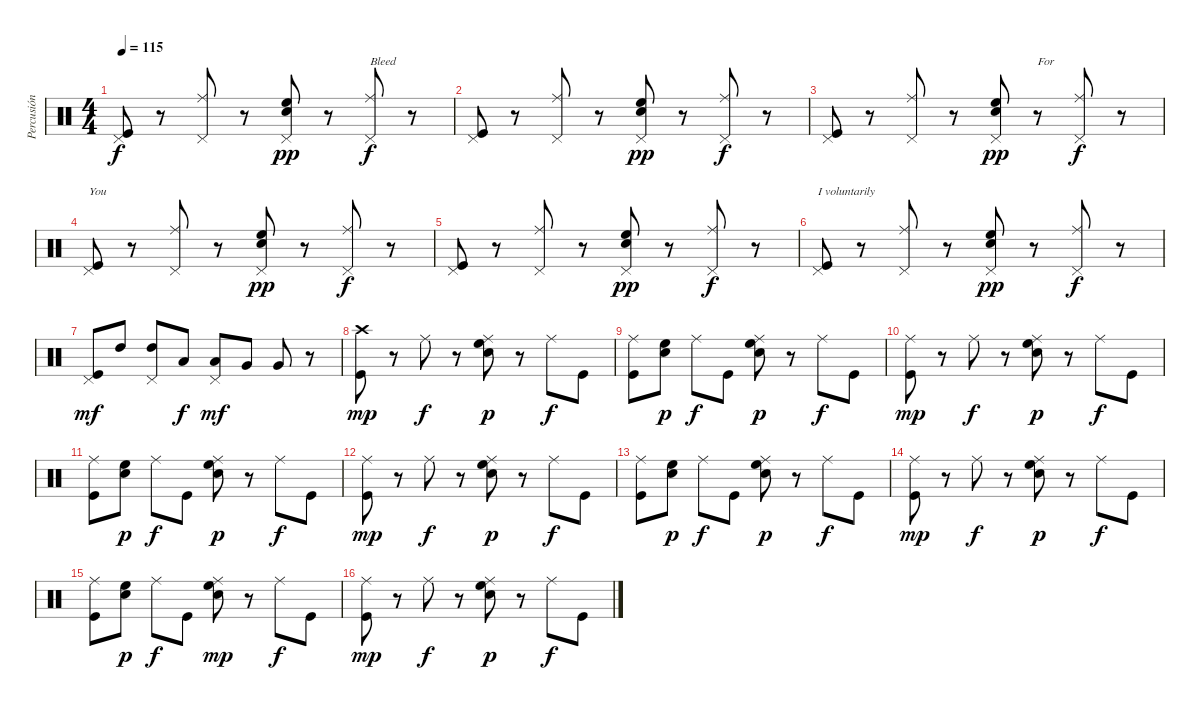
\track ("Percusión" "Percusión") {instrument percussion}
\staff {score}
\articulation defaults
\ts (4 4)
\tempo 115
\clef neutral
\ks c
("Pedal Hi-Hat (hit)" "Kick (hit)").8{dy f} r.8 ("Pedal Hi-Hat (hit)" "Ride (middle)").8 r.8 ("Pedal Hi-Hat (hit)" "High Floor Tom (hit)" "Electric Snare (hit)").8{dy pp} r.8 ("Pedal Hi-Hat (hit)" "Ride (middle)").8{txt "Bleed" dy f} r.8 |
("Pedal Hi-Hat (hit)" "Kick (hit)").8 r.8 ("Pedal Hi-Hat (hit)" "Ride (middle)").8 r.8 ("Pedal Hi-Hat (hit)" "High Floor Tom (hit)" "Electric Snare (hit)").8{dy pp} r.8 ("Pedal Hi-Hat (hit)" "Ride (middle)").8{dy f} r.8 |
("Pedal Hi-Hat (hit)" "Kick (hit)").8 r.8 ("Pedal Hi-Hat (hit)" "Ride (middle)").8 r.8 ("Pedal Hi-Hat (hit)" "High Floor Tom (hit)" "Electric Snare (hit)").8{dy pp} r.8{txt "For"} ("Pedal Hi-Hat (hit)" "Ride (middle)").8{dy f} r.8 |
("Pedal Hi-Hat (hit)" "Kick (hit)").8{txt "You"} r.8 ("Pedal Hi-Hat (hit)" "Ride (middle)").8 r.8 ("Pedal Hi-Hat (hit)" "High Floor Tom (hit)" "Electric Snare (hit)").8{dy pp} r.8 ("Pedal Hi-Hat (hit)" "Ride (middle)").8{dy f} r.8 |
("Pedal Hi-Hat (hit)" "Kick (hit)").8 r.8 ("Pedal Hi-Hat (hit)" "Ride (middle)").8 r.8 ("Pedal Hi-Hat (hit)" "High Floor Tom (hit)" "Electric Snare (hit)").8{dy pp} r.8 ("Pedal Hi-Hat (hit)" "Ride (middle)").8{dy f} r.8 |
("Pedal Hi-Hat (hit)" "Kick (hit)").8{txt "I voluntarily"} r.8 ("Pedal Hi-Hat (hit)" "Ride (middle)").8 r.8 ("Pedal Hi-Hat (hit)" "High Floor Tom (hit)" "Electric Snare (hit)").8{dy pp} r.8 ("Pedal Hi-Hat (hit)" "Ride (middle)").8{dy f} r.8 |
("Pedal Hi-Hat (hit)" "Kick (hit)").8{dy mf} "High Tom (hit)".8 ("Pedal Hi-Hat (hit)" "High Tom (hit)").8 "Low Tom (hit)".8{dy f} ("Pedal Hi-Hat (hit)" "Low Tom (hit)").8{dy mf} "Very Low Tom (hit)".8 "Very Low Tom (hit)".8 r.8 |
("Crash high (hit)" "Kick (hit)").8{dy mp} r.8 "Ride (middle)".8{dy f} r.8 ("Ride (middle)" "Electric Snare (hit)" "High Floor Tom (hit)").8{dy p} r.8 "Ride (middle)".8{dy f} "Kick (hit)".8 |
("Ride (middle)" "Kick (hit)").8 ("High Floor Tom (hit)" "Electric Snare (hit)").8{dy p} "Ride (middle)".8{dy f} "Kick (hit)".8 ("Ride (middle)" "High Floor Tom (hit)" "Electric Snare (hit)").8{dy p} r.8 "Ride (middle)".8{dy f} "Kick (hit)".8 |
("Ride (middle)" "Kick (hit)").8{dy mp} r.8 "Ride (middle)".8{dy f} r.8 ("Ride (middle)" "Electric Snare (hit)" "High Floor Tom (hit)").8{dy p} r.8 "Ride (middle)".8{dy f} "Kick (hit)".8 |
("Ride (middle)" "Kick (hit)").8 ("High Floor Tom (hit)" "Electric Snare (hit)").8{dy p} "Ride (middle)".8{dy f} "Kick (hit)".8 ("Ride (middle)" "High Floor Tom (hit)" "Electric Snare (hit)").8{dy p} r.8 "Ride (middle)".8{dy f} "Kick (hit)".8 |
("Ride (middle)" "Kick (hit)").8{dy mp} r.8 "Ride (middle)".8{dy f} r.8 ("Ride (middle)" "Electric Snare (hit)" "High Floor Tom (hit)").8{dy p} r.8 "Ride (middle)".8{dy f} "Kick (hit)".8 |
("Ride (middle)" "Kick (hit)").8 ("High Floor Tom (hit)" "Electric Snare (hit)").8{dy p} "Ride (middle)".8{dy f} "Kick (hit)".8 ("Ride (middle)" "High Floor Tom (hit)" "Electric Snare (hit)").8{dy p} r.8 "Ride (middle)".8{dy f} "Kick (hit)".8 |
("Ride (middle)" "Kick (hit)").8{dy mp} r.8 "Ride (middle)".8{dy f} r.8 ("Ride (middle)" "Electric Snare (hit)" "High Floor Tom (hit)").8{dy p} r.8 "Ride (middle)".8{dy f} "Kick (hit)".8 |
("Ride (middle)" "Kick (hit)").8 ("High Floor Tom (hit)" "Electric Snare (hit)").8{dy p} "Ride (middle)".8{dy f} "Kick (hit)".8 ("Ride (middle)" "High Floor Tom (hit)" "Electric Snare (hit)").8{dy mp} r.8 "Ride (middle)".8{dy f} "Kick (hit)".8 |
("Ride (middle)" "Kick (hit)").8{dy mp} r.8 "Ride (middle)".8{dy f} r.8 ("Ride (middle)" "Electric Snare (hit)" "High Floor Tom (hit)").8{dy p} r.8 "Ride (middle)".8{dy f} "Kick (hit)".8
